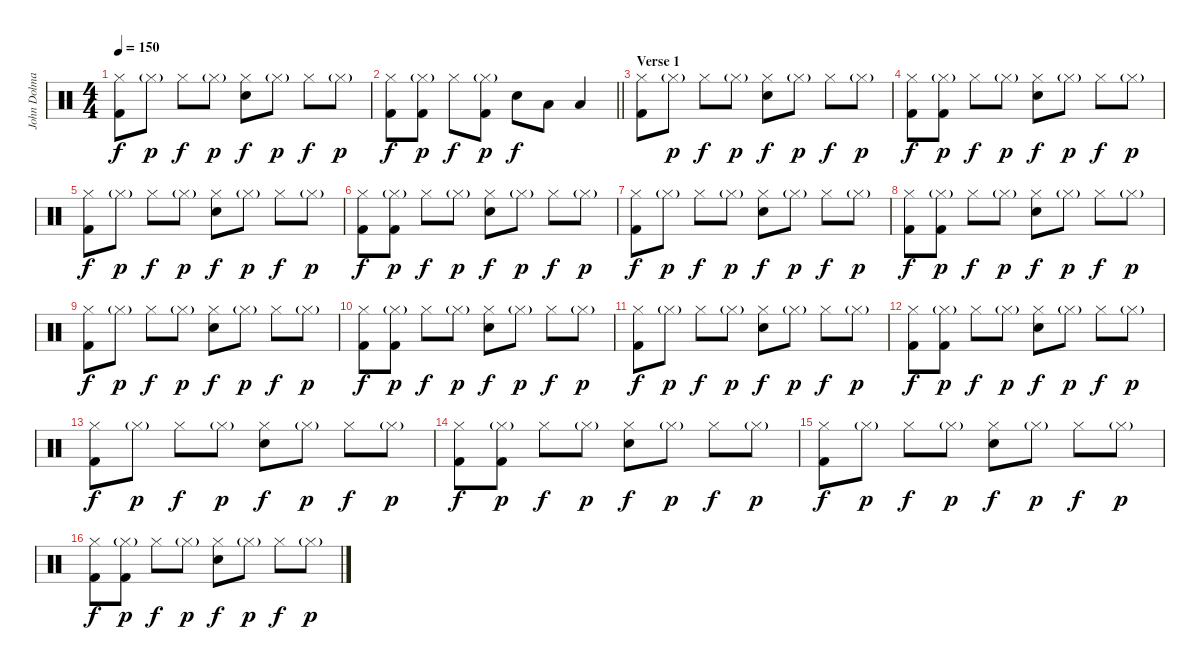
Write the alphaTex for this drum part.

\track ("John Dolmayan(Drums)" "John Dolma") {instrument percussion}
\staff {score}
\articulation defaults
\ts (4 4)
\tempo 150
\clef neutral
\ks c
("Hi-Hat (closed)" "Kick (hit) 2").8{dy f} "Hi-Hat (closed)"{g}.8{dy p} "Hi-Hat (closed)".8{dy f} "Hi-Hat (closed)"{g}.8{dy p} ("Hi-Hat (closed)" "Snare (hit) 2").8{dy f} "Hi-Hat (closed)"{g}.8{dy p} "Hi-Hat (closed)".8{dy f} "Hi-Hat (closed)"{g}.8{dy p} |
\barLineRight lightlight
("Hi-Hat (closed)" "Kick (hit) 2").8{dy f} ("Hi-Hat (closed)"{g} "Kick (hit) 2").8{dy p} "Hi-Hat (closed)".8{dy f} ("Hi-Hat (closed)"{g} "Kick (hit) 2").8{dy p} "Snare (hit) 2".8{dy f} "Low Floor Tom (hit)".8 "Low Floor Tom (hit)".4 |
\section ("" "Verse 1")
("Hi-Hat (closed)" "Kick (hit) 2").8 "Hi-Hat (closed)"{g}.8{dy p} "Hi-Hat (closed)".8{dy f} "Hi-Hat (closed)"{g}.8{dy p} ("Hi-Hat (closed)" "Snare (hit) 2").8{dy f} "Hi-Hat (closed)"{g}.8{dy p} "Hi-Hat (closed)".8{dy f} "Hi-Hat (closed)"{g}.8{dy p} |
("Hi-Hat (closed)" "Kick (hit) 2").8{dy f} ("Hi-Hat (closed)"{g} "Kick (hit) 2").8{dy p} "Hi-Hat (closed)".8{dy f} "Hi-Hat (closed)"{g}.8{dy p} ("Hi-Hat (closed)" "Snare (hit) 2").8{dy f} "Hi-Hat (closed)"{g}.8{dy p} "Hi-Hat (closed)".8{dy f} "Hi-Hat (closed)"{g}.8{dy p} |
("Hi-Hat (closed)" "Kick (hit) 2").8{dy f} "Hi-Hat (closed)"{g}.8{dy p} "Hi-Hat (closed)".8{dy f} "Hi-Hat (closed)"{g}.8{dy p} ("Hi-Hat (closed)" "Snare (hit) 2").8{dy f} "Hi-Hat (closed)"{g}.8{dy p} "Hi-Hat (closed)".8{dy f} "Hi-Hat (closed)"{g}.8{dy p} |
("Hi-Hat (closed)" "Kick (hit) 2").8{dy f} ("Hi-Hat (closed)"{g} "Kick (hit) 2").8{dy p} "Hi-Hat (closed)".8{dy f} "Hi-Hat (closed)"{g}.8{dy p} ("Hi-Hat (closed)" "Snare (hit) 2").8{dy f} "Hi-Hat (closed)"{g}.8{dy p} "Hi-Hat (closed)".8{dy f} "Hi-Hat (closed)"{g}.8{dy p} |
("Hi-Hat (closed)" "Kick (hit) 2").8{dy f} "Hi-Hat (closed)"{g}.8{dy p} "Hi-Hat (closed)".8{dy f} "Hi-Hat (closed)"{g}.8{dy p} ("Hi-Hat (closed)" "Snare (hit) 2").8{dy f} "Hi-Hat (closed)"{g}.8{dy p} "Hi-Hat (closed)".8{dy f} "Hi-Hat (closed)"{g}.8{dy p} |
("Hi-Hat (closed)" "Kick (hit) 2").8{dy f} ("Hi-Hat (closed)"{g} "Kick (hit) 2").8{dy p} "Hi-Hat (closed)".8{dy f} "Hi-Hat (closed)"{g}.8{dy p} ("Hi-Hat (closed)" "Snare (hit) 2").8{dy f} "Hi-Hat (closed)"{g}.8{dy p} "Hi-Hat (closed)".8{dy f} "Hi-Hat (closed)"{g}.8{dy p} |
("Hi-Hat (closed)" "Kick (hit) 2").8{dy f} "Hi-Hat (closed)"{g}.8{dy p} "Hi-Hat (closed)".8{dy f} "Hi-Hat (closed)"{g}.8{dy p} ("Hi-Hat (closed)" "Snare (hit) 2").8{dy f} "Hi-Hat (closed)"{g}.8{dy p} "Hi-Hat (closed)".8{dy f} "Hi-Hat (closed)"{g}.8{dy p} |
("Hi-Hat (closed)" "Kick (hit) 2").8{dy f} ("Hi-Hat (closed)"{g} "Kick (hit) 2").8{dy p} "Hi-Hat (closed)".8{dy f} "Hi-Hat (closed)"{g}.8{dy p} ("Hi-Hat (closed)" "Snare (hit) 2").8{dy f} "Hi-Hat (closed)"{g}.8{dy p} "Hi-Hat (closed)".8{dy f} "Hi-Hat (closed)"{g}.8{dy p} |
("Hi-Hat (closed)" "Kick (hit) 2").8{dy f} "Hi-Hat (closed)"{g}.8{dy p} "Hi-Hat (closed)".8{dy f} "Hi-Hat (closed)"{g}.8{dy p} ("Hi-Hat (closed)" "Snare (hit) 2").8{dy f} "Hi-Hat (closed)"{g}.8{dy p} "Hi-Hat (closed)".8{dy f} "Hi-Hat (closed)"{g}.8{dy p} |
("Hi-Hat (closed)" "Kick (hit) 2").8{dy f} ("Hi-Hat (closed)"{g} "Kick (hit) 2").8{dy p} "Hi-Hat (closed)".8{dy f} "Hi-Hat (closed)"{g}.8{dy p} ("Hi-Hat (closed)" "Snare (hit) 2").8{dy f} "Hi-Hat (closed)"{g}.8{dy p} "Hi-Hat (closed)".8{dy f} "Hi-Hat (closed)"{g}.8{dy p} |
("Hi-Hat (closed)" "Kick (hit) 2").8{dy f} "Hi-Hat (closed)"{g}.8{dy p} "Hi-Hat (closed)".8{dy f} "Hi-Hat (closed)"{g}.8{dy p} ("Hi-Hat (closed)" "Snare (hit) 2").8{dy f} "Hi-Hat (closed)"{g}.8{dy p} "Hi-Hat (closed)".8{dy f} "Hi-Hat (closed)"{g}.8{dy p} |
("Hi-Hat (closed)" "Kick (hit) 2").8{dy f} ("Hi-Hat (closed)"{g} "Kick (hit) 2").8{dy p} "Hi-Hat (closed)".8{dy f} "Hi-Hat (closed)"{g}.8{dy p} ("Hi-Hat (closed)" "Snare (hit) 2").8{dy f} "Hi-Hat (closed)"{g}.8{dy p} "Hi-Hat (closed)".8{dy f} "Hi-Hat (closed)"{g}.8{dy p} |
("Hi-Hat (closed)" "Kick (hit) 2").8{dy f} "Hi-Hat (closed)"{g}.8{dy p} "Hi-Hat (closed)".8{dy f} "Hi-Hat (closed)"{g}.8{dy p} ("Hi-Hat (closed)" "Snare (hit) 2").8{dy f} "Hi-Hat (closed)"{g}.8{dy p} "Hi-Hat (closed)".8{dy f} "Hi-Hat (closed)"{g}.8{dy p} |
("Hi-Hat (closed)" "Kick (hit) 2").8{dy f} ("Hi-Hat (closed)"{g} "Kick (hit) 2").8{dy p} "Hi-Hat (closed)".8{dy f} "Hi-Hat (closed)"{g}.8{dy p} ("Hi-Hat (closed)" "Snare (hit) 2").8{dy f} "Hi-Hat (closed)"{g}.8{dy p} "Hi-Hat (closed)".8{dy f} "Hi-Hat (closed)"{g}.8{dy p}
